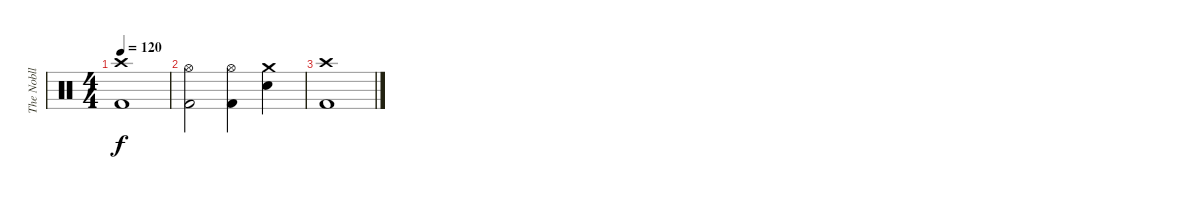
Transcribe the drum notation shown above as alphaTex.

\track ("The Nobll" "The Nobll") {instrument percussion}
\staff {score}
\articulation defaults
\ts (4 4)
\tempo 120
\clef neutral
\ks c
("Crash high (hit)" "Kick (hit) 2").1{dy f} |
("Hi-Hat (open)" "Kick (hit) 2").2 ("Hi-Hat (open)" "Kick (hit) 2").4 ("Crash medium (hit)" "Snare (hit) 2").4 |
("Crash high (hit)" "Kick (hit) 2").1
